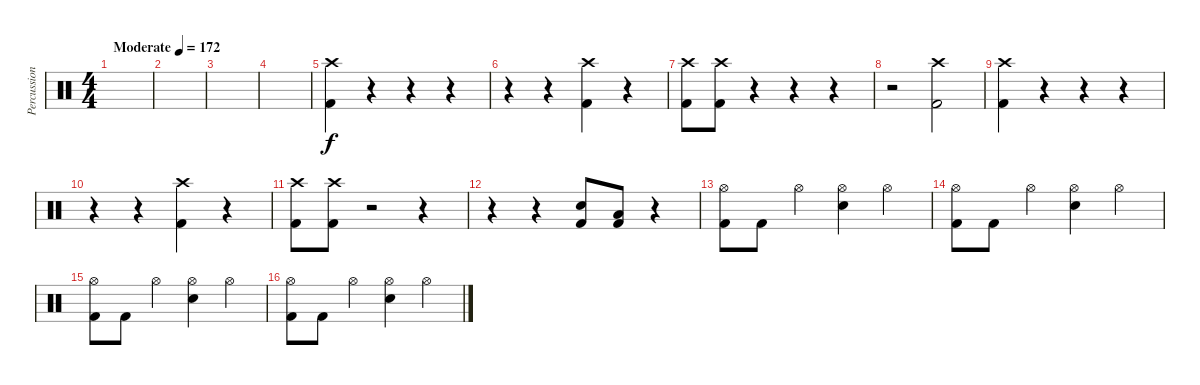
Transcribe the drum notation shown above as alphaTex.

\track ("Percussion" "Percussion") {instrument percussion}
\staff {score}
\articulation defaults
\ts (4 4)
\tempo (172 "Moderate")
\clef neutral
\ks c
|
|
|
|
("Crash high (hit)" "Kick (hit) 2").4 r.4 r.4 r.4 |
r.4 r.4 ("Crash high (hit)" "Kick (hit) 2").4 r.4 |
("Crash high (hit)" "Kick (hit) 2").8 ("Crash high (hit)" "Kick (hit) 2").8 r.4 r.4 r.4 |
r.2 ("Crash high (hit)" "Kick (hit) 2").2 |
("Crash high (hit)" "Kick (hit) 2").4 r.4 r.4 r.4 |
r.4 r.4 ("Crash high (hit)" "Kick (hit) 2").4 r.4 |
("Crash high (hit)" "Kick (hit) 2").8 ("Crash high (hit)" "Kick (hit) 2").8 r.2 r.4 |
r.4 r.4 ("Electric Snare (hit)" "Kick (hit) 2").8 ("Low Floor Tom (hit)" "Kick (hit) 2").8 r.4 |
("Hi-Hat (open)" "Kick (hit) 2").8 "Kick (hit) 2".8 "Hi-Hat (open)".4 ("Hi-Hat (open)" "Electric Snare (hit)").4 "Hi-Hat (open)".4 |
("Hi-Hat (open)" "Kick (hit) 2").8 "Kick (hit) 2".8 "Hi-Hat (open)".4 ("Hi-Hat (open)" "Electric Snare (hit)").4 "Hi-Hat (open)".4 |
("Hi-Hat (open)" "Kick (hit) 2").8 "Kick (hit) 2".8 "Hi-Hat (open)".4 ("Hi-Hat (open)" "Electric Snare (hit)").4 "Hi-Hat (open)".4 |
("Hi-Hat (open)" "Kick (hit) 2").8 "Kick (hit) 2".8 "Hi-Hat (open)".4 ("Hi-Hat (open)" "Electric Snare (hit)").4 "Hi-Hat (open)".4
